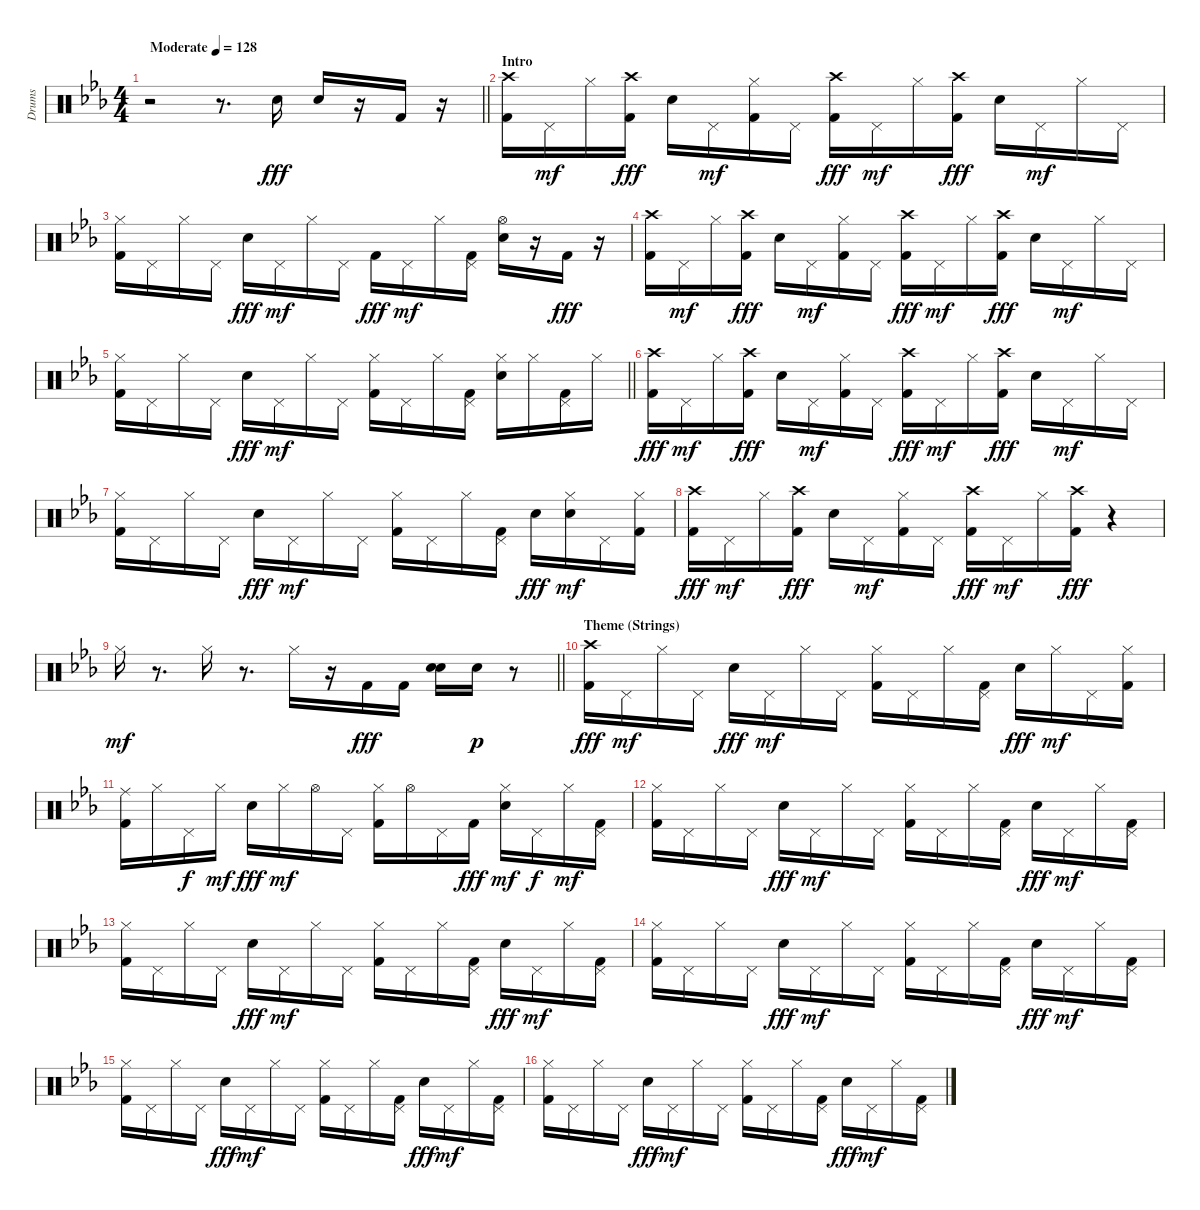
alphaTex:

\track ("Drums" "Drums") {instrument percussion}
\staff {score}
\articulation defaults
\ts (4 4)
\tempo (128 "Moderate")
\clef neutral
\barLineRight lightlight
\ks cminor
r.2{dy fff} r.8{d} "Electric Snare (hit)".16 "Electric Snare (hit)".16 r.16 "Kick (hit) 2".16 r.16 |
\section ("" "Intro")
("Kick (hit) 2" "Crash high (hit)").16 "Pedal Hi-Hat (hit)".16{dy mf} "Hi-Hat (closed)".16 ("Kick (hit) 2" "Crash high (hit)").16{dy fff} "Electric Snare (hit)".16 "Pedal Hi-Hat (hit)".16{dy mf} ("Kick (hit) 2" "Hi-Hat (closed)").16 "Pedal Hi-Hat (hit)".16 ("Kick (hit) 2" "Crash high (hit)").16{dy fff} "Pedal Hi-Hat (hit)".16{dy mf} "Hi-Hat (closed)".16 ("Kick (hit) 2" "Crash high (hit)").16{dy fff} "Electric Snare (hit)".16 "Pedal Hi-Hat (hit)".16{dy mf} "Hi-Hat (closed)".16 "Pedal Hi-Hat (hit)".16 |
("Kick (hit) 2" "Hi-Hat (closed)").16 "Pedal Hi-Hat (hit)".16 "Hi-Hat (closed)".16 "Pedal Hi-Hat (hit)".16 "Electric Snare (hit)".16{dy fff} "Pedal Hi-Hat (hit)".16{dy mf} "Hi-Hat (closed)".16 "Pedal Hi-Hat (hit)".16 "Kick (hit) 2".16{dy fff} "Pedal Hi-Hat (hit)".16{dy mf} "Hi-Hat (closed)".16 ("Kick (hit) 2" "Pedal Hi-Hat (hit)").16 ("Electric Snare (hit)" "Hi-Hat (open)").16 r.16 "Kick (hit) 2".16{dy fff} r.16 |
("Kick (hit) 2" "Crash high (hit)").16 "Pedal Hi-Hat (hit)".16{dy mf} "Hi-Hat (closed)".16 ("Kick (hit) 2" "Crash high (hit)").16{dy fff} "Electric Snare (hit)".16 "Pedal Hi-Hat (hit)".16{dy mf} ("Kick (hit) 2" "Hi-Hat (closed)").16 "Pedal Hi-Hat (hit)".16 ("Kick (hit) 2" "Crash high (hit)").16{dy fff} "Pedal Hi-Hat (hit)".16{dy mf} "Hi-Hat (closed)".16 ("Kick (hit) 2" "Crash high (hit)").16{dy fff} "Electric Snare (hit)".16 "Pedal Hi-Hat (hit)".16{dy mf} "Hi-Hat (closed)".16 "Pedal Hi-Hat (hit)".16 |
\barLineRight lightlight
("Kick (hit) 2" "Hi-Hat (closed)").16 "Pedal Hi-Hat (hit)".16 "Hi-Hat (closed)".16 "Pedal Hi-Hat (hit)".16 "Electric Snare (hit)".16{dy fff} "Pedal Hi-Hat (hit)".16{dy mf} "Hi-Hat (closed)".16 "Pedal Hi-Hat (hit)".16 ("Kick (hit) 2" "Hi-Hat (closed)").16 "Pedal Hi-Hat (hit)".16 "Hi-Hat (closed)".16 ("Kick (hit) 2" "Pedal Hi-Hat (hit)").16 ("Electric Snare (hit)" "Hi-Hat (closed)").16 "Hi-Hat (closed)".16 ("Kick (hit) 2" "Pedal Hi-Hat (hit)").16 "Hi-Hat (closed)".16 |
("Kick (hit) 2" "Crash high (hit)").16{dy fff} "Pedal Hi-Hat (hit)".16{dy mf} "Hi-Hat (closed)".16 ("Kick (hit) 2" "Crash high (hit)").16{dy fff} "Electric Snare (hit)".16 "Pedal Hi-Hat (hit)".16{dy mf} ("Kick (hit) 2" "Hi-Hat (closed)").16 "Pedal Hi-Hat (hit)".16 ("Kick (hit) 2" "Crash high (hit)").16{dy fff} "Pedal Hi-Hat (hit)".16{dy mf} "Hi-Hat (closed)".16 ("Kick (hit) 2" "Crash high (hit)").16{dy fff} "Electric Snare (hit)".16 "Pedal Hi-Hat (hit)".16{dy mf} "Hi-Hat (closed)".16 "Pedal Hi-Hat (hit)".16 |
("Kick (hit) 2" "Hi-Hat (closed)").16 "Pedal Hi-Hat (hit)".16 "Hi-Hat (closed)".16 "Pedal Hi-Hat (hit)".16 "Electric Snare (hit)".16{dy fff} "Pedal Hi-Hat (hit)".16{dy mf} "Hi-Hat (closed)".16 "Pedal Hi-Hat (hit)".16 ("Kick (hit) 2" "Hi-Hat (closed)").16 "Pedal Hi-Hat (hit)".16 "Hi-Hat (closed)".16 ("Kick (hit) 2" "Pedal Hi-Hat (hit)").16 "Electric Snare (hit)".16{dy fff} ("Electric Snare (hit)" "Hi-Hat (closed)").16{dy mf} "Pedal Hi-Hat (hit)".16 ("Kick (hit) 2" "Hi-Hat (closed)").16 |
("Kick (hit) 2" "Crash high (hit)").16{dy fff} "Pedal Hi-Hat (hit)".16{dy mf} "Hi-Hat (closed)".16 ("Kick (hit) 2" "Crash high (hit)").16{dy fff} "Electric Snare (hit)".16 "Pedal Hi-Hat (hit)".16{dy mf} ("Kick (hit) 2" "Hi-Hat (closed)").16 "Pedal Hi-Hat (hit)".16 ("Kick (hit) 2" "Crash high (hit)").16{dy fff} "Pedal Hi-Hat (hit)".16{dy mf} "Hi-Hat (closed)".16 ("Kick (hit) 2" "Crash high (hit)").16{dy fff} r.4 |
\barLineRight lightlight "Hi-Hat (closed)".16{dy mf}
r.8{d} "Hi-Hat (closed)".16 r.8{d} "Hi-Hat (closed)".16 r.16 "Kick (hit) 2".16{dy fff} "Kick (hit) 2".16 ("Electric Snare (hit)" "Snare (hit) 2").16 "Electric Snare (hit)".16{dy p} r.8 |
\section ("" "Theme (Strings)")
("Kick (hit) 2" "Crash high (hit)").16{dy fff} "Pedal Hi-Hat (hit)".16{dy mf} "Hi-Hat (closed)".16 "Pedal Hi-Hat (hit)".16 "Electric Snare (hit)".16{dy fff} "Pedal Hi-Hat (hit)".16{dy mf} "Hi-Hat (closed)".16 "Pedal Hi-Hat (hit)".16 ("Kick (hit) 2" "Hi-Hat (closed)").16 "Pedal Hi-Hat (hit)".16 "Hi-Hat (closed)".16 ("Kick (hit) 2" "Pedal Hi-Hat (hit)").16 "Electric Snare (hit)".16{dy fff} "Hi-Hat (closed)".16{dy mf} "Pedal Hi-Hat (hit)".16 ("Kick (hit) 2" "Hi-Hat (closed)").16 |
("Kick (hit) 2" "Ride (middle)").16 "Hi-Hat (closed)".16 "Pedal Hi-Hat (hit)".16{dy f} "Hi-Hat (closed)".16{dy mf} "Electric Snare (hit)".16{dy fff} "Hi-Hat (closed)".16{dy mf} "Hi-Hat (open)".16 "Pedal Hi-Hat (hit)".16 ("Kick (hit) 2" "Hi-Hat (closed)").16 "Hi-Hat (open)".16 "Pedal Hi-Hat (hit)".16 "Kick (hit) 2".16{dy fff} ("Electric Snare (hit)" "Hi-Hat (closed)").16{dy mf} "Pedal Hi-Hat (hit)".16{dy f} "Hi-Hat (closed)".16{dy mf} ("Kick (hit) 2" "Pedal Hi-Hat (hit)").16 |
("Kick (hit) 2" "Hi-Hat (closed)").16 "Pedal Hi-Hat (hit)".16 "Hi-Hat (closed)".16 "Pedal Hi-Hat (hit)".16 "Electric Snare (hit)".16{dy fff} "Pedal Hi-Hat (hit)".16{dy mf} "Hi-Hat (closed)".16 "Pedal Hi-Hat (hit)".16 ("Kick (hit) 2" "Hi-Hat (closed)").16 "Pedal Hi-Hat (hit)".16 "Hi-Hat (closed)".16 ("Kick (hit) 2" "Pedal Hi-Hat (hit)").16 "Electric Snare (hit)".16{dy fff} "Pedal Hi-Hat (hit)".16{dy mf} "Hi-Hat (closed)".16 ("Kick (hit) 2" "Pedal Hi-Hat (hit)").16 |
("Kick (hit) 2" "Hi-Hat (closed)").16 "Pedal Hi-Hat (hit)".16 "Hi-Hat (closed)".16 "Pedal Hi-Hat (hit)".16 "Electric Snare (hit)".16{dy fff} "Pedal Hi-Hat (hit)".16{dy mf} "Hi-Hat (closed)".16 "Pedal Hi-Hat (hit)".16 ("Kick (hit) 2" "Hi-Hat (closed)").16 "Pedal Hi-Hat (hit)".16 "Hi-Hat (closed)".16 ("Kick (hit) 2" "Pedal Hi-Hat (hit)").16 "Electric Snare (hit)".16{dy fff} "Pedal Hi-Hat (hit)".16{dy mf} "Hi-Hat (closed)".16 ("Kick (hit) 2" "Pedal Hi-Hat (hit)").16 |
("Kick (hit) 2" "Hi-Hat (closed)").16 "Pedal Hi-Hat (hit)".16 "Hi-Hat (closed)".16 "Pedal Hi-Hat (hit)".16 "Electric Snare (hit)".16{dy fff} "Pedal Hi-Hat (hit)".16{dy mf} "Hi-Hat (closed)".16 "Pedal Hi-Hat (hit)".16 ("Kick (hit) 2" "Hi-Hat (closed)").16 "Pedal Hi-Hat (hit)".16 "Hi-Hat (closed)".16 ("Kick (hit) 2" "Pedal Hi-Hat (hit)").16 "Electric Snare (hit)".16{dy fff} "Pedal Hi-Hat (hit)".16{dy mf} "Hi-Hat (closed)".16 ("Kick (hit) 2" "Pedal Hi-Hat (hit)").16 |
("Kick (hit) 2" "Hi-Hat (closed)").16 "Pedal Hi-Hat (hit)".16 "Hi-Hat (closed)".16 "Pedal Hi-Hat (hit)".16 "Electric Snare (hit)".16{dy fff} "Pedal Hi-Hat (hit)".16{dy mf} "Hi-Hat (closed)".16 "Pedal Hi-Hat (hit)".16 ("Kick (hit) 2" "Hi-Hat (closed)").16 "Pedal Hi-Hat (hit)".16 "Hi-Hat (closed)".16 ("Kick (hit) 2" "Pedal Hi-Hat (hit)").16 "Electric Snare (hit)".16{dy fff} "Pedal Hi-Hat (hit)".16{dy mf} "Hi-Hat (closed)".16 ("Kick (hit) 2" "Pedal Hi-Hat (hit)").16 |
("Kick (hit) 2" "Hi-Hat (closed)").16 "Pedal Hi-Hat (hit)".16 "Hi-Hat (closed)".16 "Pedal Hi-Hat (hit)".16 "Electric Snare (hit)".16{dy fff} "Pedal Hi-Hat (hit)".16{dy mf} "Hi-Hat (closed)".16 "Pedal Hi-Hat (hit)".16 ("Kick (hit) 2" "Hi-Hat (closed)").16 "Pedal Hi-Hat (hit)".16 "Hi-Hat (closed)".16 ("Kick (hit) 2" "Pedal Hi-Hat (hit)").16 "Electric Snare (hit)".16{dy fff} "Pedal Hi-Hat (hit)".16{dy mf} "Hi-Hat (closed)".16 ("Kick (hit) 2" "Pedal Hi-Hat (hit)").16
